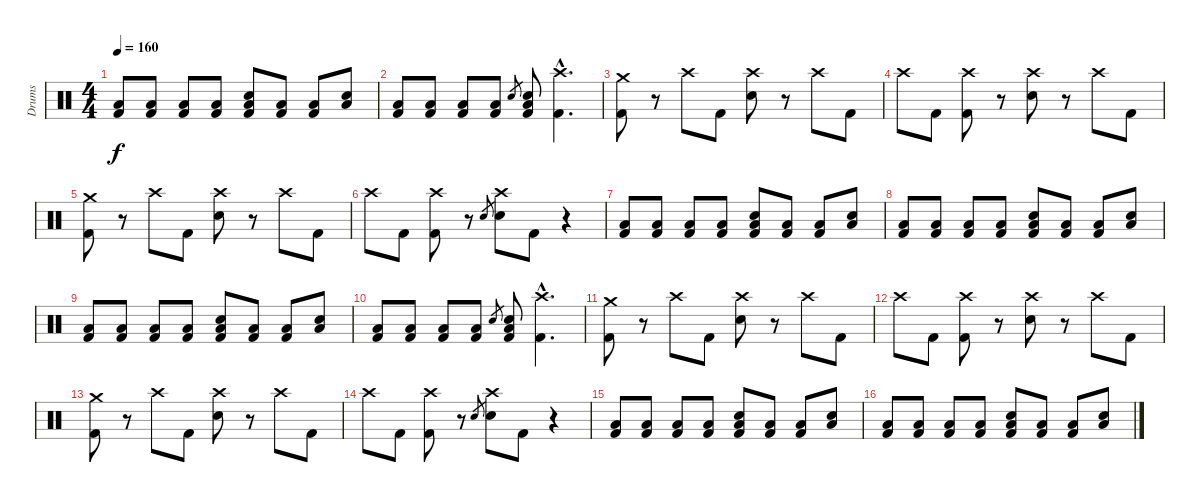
\track ("Drums" "Drums") {instrument percussion}
\staff {score}
\articulation defaults
\ts (4 4)
\tempo 160
\clef neutral
\ks c
("Low Floor Tom (hit)" "Kick (hit) 2").8{dy f} ("Low Tom (hit)" "Kick (hit) 2").8 ("Low Floor Tom (hit)" "Kick (hit) 2").8 ("Low Floor Tom (hit)" "Kick (hit) 2").8 ("Snare (hit) 2" "Low Tom (hit)" "Kick (hit) 2").8 ("Low Floor Tom (hit)" "Kick (hit) 2").8 ("Low Floor Tom (hit)" "Kick (hit) 2").8 ("Snare (hit) 2" "Low Tom (hit)").8 |
("Low Floor Tom (hit)" "Kick (hit) 2").8 ("Low Tom (hit)" "Kick (hit) 2").8 ("Low Floor Tom (hit)" "Kick (hit) 2").8 ("Low Floor Tom (hit)" "Kick (hit) 2").8 "Snare (hit) 2".8{gr} ("Snare (hit) 2" "Low Tom (hit)" "Kick (hit) 2").8 ("Crash high (hit)"{hac} "Kick (hit) 2"{hac}).4{d} |
("Crash medium (hit)" "Kick (hit) 2").8 r.8 "Crash high (hit)".8 "Kick (hit) 2".8 ("Crash high (hit)" "Snare (hit) 2").8 r.8 "Crash high (hit)".8 "Kick (hit) 2".8 |
"Crash high (hit)".8 "Kick (hit) 2".8 ("Crash high (hit)" "Kick (hit) 2").8 r.8 ("Crash high (hit)" "Snare (hit) 2").8 r.8 "Crash high (hit)".8 "Kick (hit) 2".8 |
("Crash medium (hit)" "Kick (hit) 2").8 r.8 "Crash high (hit)".8 "Kick (hit) 2".8 ("Crash high (hit)" "Snare (hit) 2").8 r.8 "Crash high (hit)".8 "Kick (hit) 2".8 |
"Crash high (hit)".8 "Kick (hit) 2".8 ("Crash high (hit)" "Kick (hit) 2").8 r.8 "Snare (hit) 2".8{gr} ("Crash high (hit)" "Snare (hit) 2").8 "Kick (hit) 2".8 r.4 |
("Low Floor Tom (hit)" "Kick (hit) 2").8 ("Low Tom (hit)" "Kick (hit) 2").8 ("Low Floor Tom (hit)" "Kick (hit) 2").8 ("Low Floor Tom (hit)" "Kick (hit) 2").8 ("Snare (hit) 2" "Low Tom (hit)" "Kick (hit) 2").8 ("Low Floor Tom (hit)" "Kick (hit) 2").8 ("Low Floor Tom (hit)" "Kick (hit) 2").8 ("Snare (hit) 2" "Low Tom (hit)").8 |
("Low Floor Tom (hit)" "Kick (hit) 2").8 ("Low Tom (hit)" "Kick (hit) 2").8 ("Low Floor Tom (hit)" "Kick (hit) 2").8 ("Low Floor Tom (hit)" "Kick (hit) 2").8 ("Snare (hit) 2" "Low Tom (hit)" "Kick (hit) 2").8 ("Low Floor Tom (hit)" "Kick (hit) 2").8 ("Low Floor Tom (hit)" "Kick (hit) 2").8 ("Snare (hit) 2" "Low Tom (hit)").8 |
("Low Floor Tom (hit)" "Kick (hit) 2").8 ("Low Tom (hit)" "Kick (hit) 2").8 ("Low Floor Tom (hit)" "Kick (hit) 2").8 ("Low Floor Tom (hit)" "Kick (hit) 2").8 ("Snare (hit) 2" "Low Tom (hit)" "Kick (hit) 2").8 ("Low Floor Tom (hit)" "Kick (hit) 2").8 ("Low Floor Tom (hit)" "Kick (hit) 2").8 ("Snare (hit) 2" "Low Tom (hit)").8 |
("Low Floor Tom (hit)" "Kick (hit) 2").8 ("Low Tom (hit)" "Kick (hit) 2").8 ("Low Floor Tom (hit)" "Kick (hit) 2").8 ("Low Floor Tom (hit)" "Kick (hit) 2").8 "Snare (hit) 2".8{gr} ("Snare (hit) 2" "Low Tom (hit)" "Kick (hit) 2").8 ("Crash high (hit)"{hac} "Kick (hit) 2"{hac}).4{d} |
("Crash medium (hit)" "Kick (hit) 2").8 r.8 "Crash high (hit)".8 "Kick (hit) 2".8 ("Crash high (hit)" "Snare (hit) 2").8 r.8 "Crash high (hit)".8 "Kick (hit) 2".8 |
"Crash high (hit)".8 "Kick (hit) 2".8 ("Crash high (hit)" "Kick (hit) 2").8 r.8 ("Crash high (hit)" "Snare (hit) 2").8 r.8 "Crash high (hit)".8 "Kick (hit) 2".8 |
("Crash medium (hit)" "Kick (hit) 2").8 r.8 "Crash high (hit)".8 "Kick (hit) 2".8 ("Crash high (hit)" "Snare (hit) 2").8 r.8 "Crash high (hit)".8 "Kick (hit) 2".8 |
"Crash high (hit)".8 "Kick (hit) 2".8 ("Crash high (hit)" "Kick (hit) 2").8 r.8 "Snare (hit) 2".8{gr} ("Crash high (hit)" "Snare (hit) 2").8 "Kick (hit) 2".8 r.4 |
("Low Floor Tom (hit)" "Kick (hit) 2").8 ("Low Tom (hit)" "Kick (hit) 2").8 ("Low Floor Tom (hit)" "Kick (hit) 2").8 ("Low Floor Tom (hit)" "Kick (hit) 2").8 ("Snare (hit) 2" "Low Tom (hit)" "Kick (hit) 2").8 ("Low Floor Tom (hit)" "Kick (hit) 2").8 ("Low Floor Tom (hit)" "Kick (hit) 2").8 ("Snare (hit) 2" "Low Tom (hit)").8 |
("Low Floor Tom (hit)" "Kick (hit) 2").8 ("Low Tom (hit)" "Kick (hit) 2").8 ("Low Floor Tom (hit)" "Kick (hit) 2").8 ("Low Floor Tom (hit)" "Kick (hit) 2").8 ("Snare (hit) 2" "Low Tom (hit)" "Kick (hit) 2").8 ("Low Floor Tom (hit)" "Kick (hit) 2").8 ("Low Floor Tom (hit)" "Kick (hit) 2").8 ("Snare (hit) 2" "Low Tom (hit)").8
